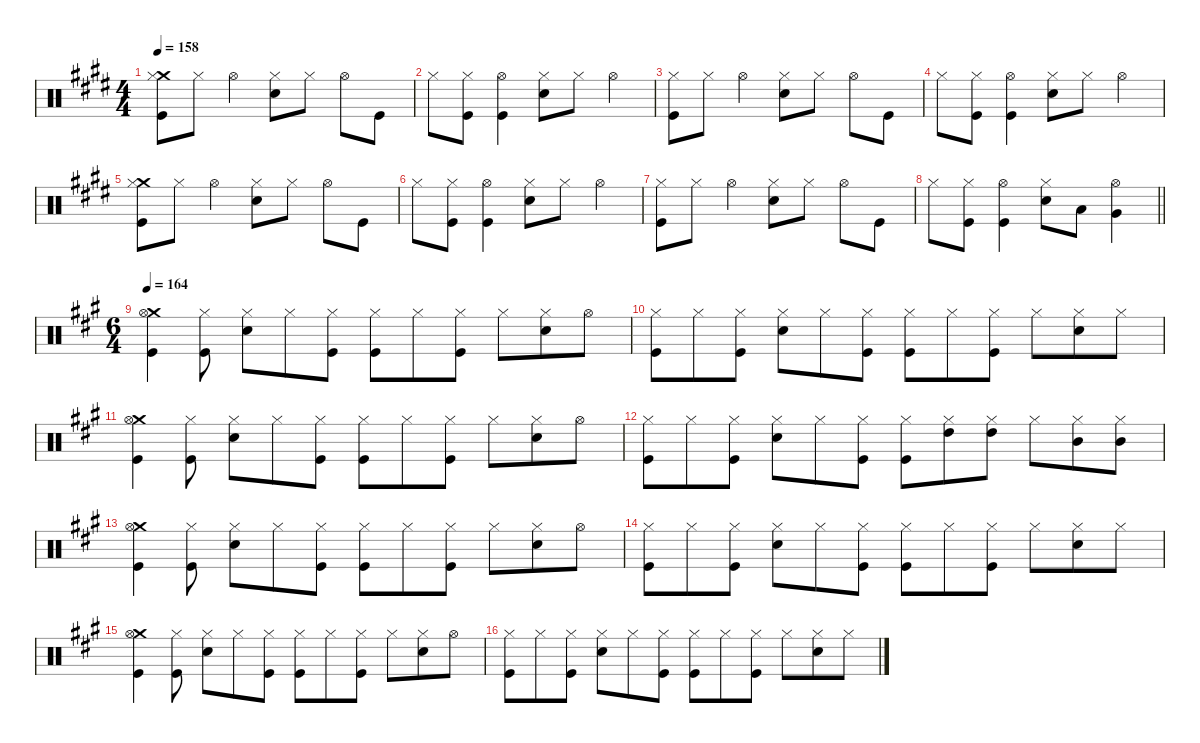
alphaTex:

\defaultSystemsLayout 4
\hideDynamics
\bracketExtendMode nobrackets
\singleTrackTrackNamePolicy hidden
\multiTrackTrackNamePolicy hidden
\firstSystemTrackNameMode fullname
\firstSystemTrackNameOrientation horizontal
\otherSystemsTrackNameOrientation horizontal
\track ("Drums" "drm.") {instrument percussion}
\staff {score}
\articulation defaults
\ts (4 4)
\tempo 158
\clef neutral
\ks c#minor
("Crash medium (hit)"{acc forcenatural} "Hi-Hat (closed)"{acc forcenatural} "Kick (hit)"{acc forcenatural}).8{dy f beam Down} "Hi-Hat (closed)"{acc forcenatural}.8{dy mf beam Down} "Hi-Hat (open)"{acc forcenatural}.4{dy f beam Down} ("Hi-Hat (closed)"{acc forcenatural} "Snare (hit) 2"{acc forcenatural}).8{beam Down} "Hi-Hat (closed)"{acc forcenatural}.8{dy mf beam Down} "Hi-Hat (open)"{acc forcenatural}.8{dy f beam Down} "Kick (hit)"{acc forcenatural}.8{beam Down} |
"Hi-Hat (closed)"{acc forcenatural}.8{beam Down} ("Hi-Hat (closed)"{acc forcenatural} "Kick (hit)"{acc forcenatural}).8{dy mf beam Down} ("Hi-Hat (open)"{acc forcenatural} "Kick (hit)"{acc forcenatural}).4{dy f beam Down} ("Hi-Hat (closed)"{acc forcenatural} "Snare (hit) 2"{acc forcenatural}).8{beam Down} "Hi-Hat (closed)"{acc forcenatural}.8{dy mf beam Down} "Hi-Hat (open)"{acc forcenatural}.4{dy f beam Down} |
("Hi-Hat (closed)"{acc forcenatural} "Kick (hit)"{acc forcenatural}).8{beam Down} "Hi-Hat (closed)"{acc forcenatural}.8{dy mf beam Down} "Hi-Hat (open)"{acc forcenatural}.4{dy f beam Down} ("Hi-Hat (closed)"{acc forcenatural} "Snare (hit) 2"{acc forcenatural}).8{beam Down} "Hi-Hat (closed)"{acc forcenatural}.8{dy mf beam Down} "Hi-Hat (open)"{acc forcenatural}.8{dy f beam Down} "Kick (hit)"{acc forcenatural}.8{beam Down} |
"Hi-Hat (closed)"{acc forcenatural}.8{beam Down} ("Hi-Hat (closed)"{acc forcenatural} "Kick (hit)"{acc forcenatural}).8{dy mf beam Down} ("Hi-Hat (open)"{acc forcenatural} "Kick (hit)"{acc forcenatural}).4{dy f beam Down} ("Hi-Hat (closed)"{acc forcenatural} "Snare (hit) 2"{acc forcenatural}).8{beam Down} "Hi-Hat (closed)"{acc forcenatural}.8{dy mf beam Down} "Hi-Hat (open)"{acc forcenatural}.4{dy f beam Down} |
("Crash medium (hit)"{acc forcenatural} "Hi-Hat (closed)"{acc forcenatural} "Kick (hit)"{acc forcenatural}).8{beam Down} "Hi-Hat (closed)"{acc forcenatural}.8{dy mf beam Down} "Hi-Hat (open)"{acc forcenatural}.4{dy f beam Down} ("Hi-Hat (closed)"{acc forcenatural} "Snare (hit) 2"{acc forcenatural}).8{beam Down} "Hi-Hat (closed)"{acc forcenatural}.8{dy mf beam Down} "Hi-Hat (open)"{acc forcenatural}.8{dy f beam Down} "Kick (hit)"{acc forcenatural}.8{beam Down} |
"Hi-Hat (closed)"{acc forcenatural}.8{beam Down} ("Hi-Hat (closed)"{acc forcenatural} "Kick (hit)"{acc forcenatural}).8{dy mf beam Down} ("Hi-Hat (open)"{acc forcenatural} "Kick (hit)"{acc forcenatural}).4{dy f beam Down} ("Hi-Hat (closed)"{acc forcenatural} "Snare (hit) 2"{acc forcenatural}).8{beam Down} "Hi-Hat (closed)"{acc forcenatural}.8{dy mf beam Down} "Hi-Hat (open)"{acc forcenatural}.4{dy f beam Down} |
("Hi-Hat (closed)"{acc forcenatural} "Kick (hit)"{acc forcenatural}).8{beam Down} "Hi-Hat (closed)"{acc forcenatural}.8{dy mf beam Down} "Hi-Hat (open)"{acc forcenatural}.4{dy f beam Down} ("Hi-Hat (closed)"{acc forcenatural} "Snare (hit) 2"{acc forcenatural}).8{beam Down} "Hi-Hat (closed)"{acc forcenatural}.8{dy mf beam Down} "Hi-Hat (open)"{acc forcenatural}.8{dy f beam Down} "Kick (hit)"{acc forcenatural}.8{beam Down} |
\barLineRight lightlight "Hi-Hat (closed)"{acc forcenatural}.8{beam Down}
("Hi-Hat (closed)"{acc forcenatural} "Kick (hit)"{acc forcenatural}).8{dy mf beam Down} ("Hi-Hat (open)"{acc forcenatural} "Kick (hit)"{acc forcenatural}).4{dy f beam Down} ("Hi-Hat (closed)"{acc forcenatural} "Snare (hit) 2"{acc forcenatural}).8{beam Down} "Low Tom (hit)"{acc forcenatural}.8{beam Down} ("Hi-Hat (open)"{acc forcenatural} "Very Low Tom (hit)"{acc forcenatural}).4{beam Down} |
\ts (6 4)
\beaming (8 3 3 3 3)
\tempo 164
\ks f#minor
("Crash medium (hit)"{acc forcenatural} "Hi-Hat (open)"{acc forcenatural} "Kick (hit)"{acc forcenatural}).4{beam Down} ("Hi-Hat (closed)"{acc forcenatural} "Kick (hit)"{acc forcenatural}).8{beam Down} ("Hi-Hat (closed)"{acc forcenatural} "Snare (hit) 2"{acc forcenatural}).8{beam Down} "Hi-Hat (closed)"{acc forcenatural}.8{beam Down} ("Hi-Hat (closed)"{acc forcenatural} "Kick (hit)"{acc forcenatural}).8{beam Down} ("Hi-Hat (closed)"{acc forcenatural} "Kick (hit)"{acc forcenatural}).8{beam Down} "Hi-Hat (closed)"{acc forcenatural}.8{beam Down} ("Hi-Hat (closed)"{acc forcenatural} "Kick (hit)"{acc forcenatural}).8{beam Down} "Hi-Hat (closed)"{acc forcenatural}.8{beam Down} ("Hi-Hat (closed)"{acc forcenatural} "Snare (hit) 2"{acc forcenatural}).8{beam Down} "Hi-Hat (open)"{acc forcenatural}.8{beam Down} |
("Hi-Hat (closed)"{acc forcenatural} "Kick (hit)"{acc forcenatural}).8{beam Down} "Hi-Hat (closed)"{acc forcenatural}.8{beam Down} ("Hi-Hat (closed)"{acc forcenatural} "Kick (hit)"{acc forcenatural}).8{beam Down} ("Hi-Hat (closed)"{acc forcenatural} "Snare (hit) 2"{acc forcenatural}).8{beam Down} "Hi-Hat (closed)"{acc forcenatural}.8{beam Down} ("Hi-Hat (closed)"{acc forcenatural} "Kick (hit)"{acc forcenatural}).8{beam Down} ("Hi-Hat (closed)"{acc forcenatural} "Kick (hit)"{acc forcenatural}).8{beam Down} "Hi-Hat (closed)"{acc forcenatural}.8{beam Down} ("Hi-Hat (closed)"{acc forcenatural} "Kick (hit)"{acc forcenatural}).8{beam Down} "Hi-Hat (closed)"{acc forcenatural}.8{beam Down} ("Hi-Hat (closed)"{acc forcenatural} "Snare (hit) 2"{acc forcenatural}).8{beam Down} "Hi-Hat (closed)"{acc forcenatural}.8{beam Down} |
("Crash medium (hit)"{acc forcenatural} "Hi-Hat (open)"{acc forcenatural} "Kick (hit)"{acc forcenatural}).4{beam Down} ("Hi-Hat (closed)"{acc forcenatural} "Kick (hit)"{acc forcenatural}).8{beam Down} ("Hi-Hat (closed)"{acc forcenatural} "Snare (hit) 2"{acc forcenatural}).8{beam Down} "Hi-Hat (closed)"{acc forcenatural}.8{beam Down} ("Hi-Hat (closed)"{acc forcenatural} "Kick (hit)"{acc forcenatural}).8{beam Down} ("Hi-Hat (closed)"{acc forcenatural} "Kick (hit)"{acc forcenatural}).8{beam Down} "Hi-Hat (closed)"{acc forcenatural}.8{beam Down} ("Hi-Hat (closed)"{acc forcenatural} "Kick (hit)"{acc forcenatural}).8{beam Down} "Hi-Hat (closed)"{acc forcenatural}.8{beam Down} ("Hi-Hat (closed)"{acc forcenatural} "Snare (hit) 2"{acc forcenatural}).8{beam Down} "Hi-Hat (open)"{acc forcenatural}.8{beam Down} |
("Hi-Hat (closed)"{acc forcenatural} "Kick (hit)"{acc forcenatural}).8{beam Down} "Hi-Hat (closed)"{acc forcenatural}.8{beam Down} ("Hi-Hat (closed)"{acc forcenatural} "Kick (hit)"{acc forcenatural}).8{beam Down} ("Hi-Hat (closed)"{acc forcenatural} "Snare (hit) 2"{acc forcenatural}).8{beam Down} "Hi-Hat (closed)"{acc forcenatural}.8{beam Down} ("Hi-Hat (closed)"{acc forcenatural} "Kick (hit)"{acc forcenatural}).8{beam Down} ("Hi-Hat (closed)"{acc forcenatural} "Kick (hit)"{acc forcenatural}).8{beam Down} ("Hi-Hat (closed)"{acc forcenatural} "High Tom (hit)"{acc forcenatural}).8{beam Down} ("Hi-Hat (closed)"{acc forcenatural} "High Tom (hit)"{acc forcenatural}).8{beam Down} "Hi-Hat (closed)"{acc forcenatural}.8{beam Down} ("Hi-Hat (closed)"{acc forcenatural} "Mid Tom (hit)"{acc forcenatural}).8{beam Down} ("Hi-Hat (closed)"{acc forcenatural} "Mid Tom (hit)"{acc forcenatural}).8{beam Down} |
("Crash medium (hit)"{acc forcenatural} "Hi-Hat (open)"{acc forcenatural} "Kick (hit)"{acc forcenatural}).4{beam Down} ("Hi-Hat (closed)"{acc forcenatural} "Kick (hit)"{acc forcenatural}).8{beam Down} ("Hi-Hat (closed)"{acc forcenatural} "Snare (hit) 2"{acc forcenatural}).8{beam Down} "Hi-Hat (closed)"{acc forcenatural}.8{beam Down} ("Hi-Hat (closed)"{acc forcenatural} "Kick (hit)"{acc forcenatural}).8{beam Down} ("Hi-Hat (closed)"{acc forcenatural} "Kick (hit)"{acc forcenatural}).8{beam Down} "Hi-Hat (closed)"{acc forcenatural}.8{beam Down} ("Hi-Hat (closed)"{acc forcenatural} "Kick (hit)"{acc forcenatural}).8{beam Down} "Hi-Hat (closed)"{acc forcenatural}.8{beam Down} ("Hi-Hat (closed)"{acc forcenatural} "Snare (hit) 2"{acc forcenatural}).8{beam Down} "Hi-Hat (open)"{acc forcenatural}.8{beam Down} |
("Hi-Hat (closed)"{acc forcenatural} "Kick (hit)"{acc forcenatural}).8{beam Down} "Hi-Hat (closed)"{acc forcenatural}.8{beam Down} ("Hi-Hat (closed)"{acc forcenatural} "Kick (hit)"{acc forcenatural}).8{beam Down} ("Hi-Hat (closed)"{acc forcenatural} "Snare (hit) 2"{acc forcenatural}).8{beam Down} "Hi-Hat (closed)"{acc forcenatural}.8{beam Down} ("Hi-Hat (closed)"{acc forcenatural} "Kick (hit)"{acc forcenatural}).8{beam Down} ("Hi-Hat (closed)"{acc forcenatural} "Kick (hit)"{acc forcenatural}).8{beam Down} "Hi-Hat (closed)"{acc forcenatural}.8{beam Down} ("Hi-Hat (closed)"{acc forcenatural} "Kick (hit)"{acc forcenatural}).8{beam Down} "Hi-Hat (closed)"{acc forcenatural}.8{beam Down} ("Hi-Hat (closed)"{acc forcenatural} "Snare (hit) 2"{acc forcenatural}).8{beam Down} "Hi-Hat (closed)"{acc forcenatural}.8{beam Down} |
("Crash medium (hit)"{acc forcenatural} "Hi-Hat (open)"{acc forcenatural} "Kick (hit)"{acc forcenatural}).4{beam Down} ("Hi-Hat (closed)"{acc forcenatural} "Kick (hit)"{acc forcenatural}).8{beam Down} ("Hi-Hat (closed)"{acc forcenatural} "Snare (hit) 2"{acc forcenatural}).8{beam Down} "Hi-Hat (closed)"{acc forcenatural}.8{beam Down} ("Hi-Hat (closed)"{acc forcenatural} "Kick (hit)"{acc forcenatural}).8{beam Down} ("Hi-Hat (closed)"{acc forcenatural} "Kick (hit)"{acc forcenatural}).8{beam Down} "Hi-Hat (closed)"{acc forcenatural}.8{beam Down} ("Hi-Hat (closed)"{acc forcenatural} "Kick (hit)"{acc forcenatural}).8{beam Down} "Hi-Hat (closed)"{acc forcenatural}.8{beam Down} ("Hi-Hat (closed)"{acc forcenatural} "Snare (hit) 2"{acc forcenatural}).8{beam Down} "Hi-Hat (open)"{acc forcenatural}.8{beam Down} |
("Hi-Hat (closed)"{acc forcenatural} "Kick (hit)"{acc forcenatural}).8{beam Down} "Hi-Hat (closed)"{acc forcenatural}.8{beam Down} ("Hi-Hat (closed)"{acc forcenatural} "Kick (hit)"{acc forcenatural}).8{beam Down} ("Hi-Hat (closed)"{acc forcenatural} "Snare (hit) 2"{acc forcenatural}).8{beam Down} "Hi-Hat (closed)"{acc forcenatural}.8{beam Down} ("Hi-Hat (closed)"{acc forcenatural} "Kick (hit)"{acc forcenatural}).8{beam Down} ("Hi-Hat (closed)"{acc forcenatural} "Kick (hit)"{acc forcenatural}).8{beam Down} "Hi-Hat (closed)"{acc forcenatural}.8{beam Down} ("Hi-Hat (closed)"{acc forcenatural} "Kick (hit)"{acc forcenatural}).8{beam Down} "Hi-Hat (closed)"{acc forcenatural}.8{beam Down} ("Hi-Hat (closed)"{acc forcenatural} "Snare (hit) 2"{acc forcenatural}).8{beam Down} "Hi-Hat (closed)"{acc forcenatural}.8{beam Down}
